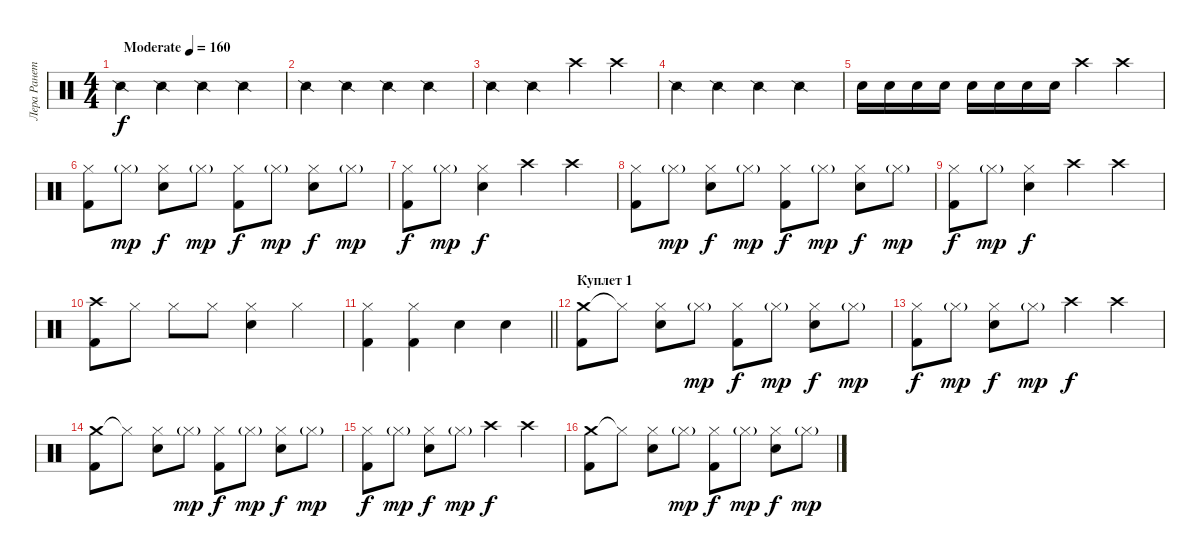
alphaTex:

\track ("Лера Ранетка" "Лера Ранет") {instrument percussion}
\staff {score}
\articulation defaults
\ts (4 4)
\tempo (160 "Moderate")
\clef neutral
\ks c "Snare (side stick) 2".4{dy f} "Snare (side stick) 2".4 "Snare (side stick) 2".4 "Snare (side stick) 2".4
|
"Snare (side stick) 2".4 "Snare (side stick) 2".4 "Snare (side stick) 2".4 "Snare (side stick) 2".4 |
"Snare (side stick) 2".4 "Snare (side stick) 2".4 "Crash high (hit)".4 "Crash high (hit)".4 |
"Snare (side stick) 2".4 "Snare (side stick) 2".4 "Snare (side stick) 2".4 "Snare (side stick) 2".4 |
"Snare (hit) 2".16 "Snare (hit) 2".16 "Snare (hit) 2".16 "Snare (hit) 2".16 "Snare (hit) 2".16 "Snare (hit) 2".16 "Snare (hit) 2".16 "Snare (hit) 2".16 "Crash high (hit)".4 "Crash high (hit)".4 |
("Hi-Hat (closed)" "Kick (hit) 2").8 "Hi-Hat (closed)"{g}.8{dy mp} ("Hi-Hat (closed)" "Snare (hit) 2").8{dy f} "Hi-Hat (closed)"{g}.8{dy mp} ("Hi-Hat (closed)" "Kick (hit) 2").8{dy f} "Hi-Hat (closed)"{g}.8{dy mp} ("Hi-Hat (closed)" "Snare (hit) 2").8{dy f} "Hi-Hat (closed)"{g}.8{dy mp} |
("Hi-Hat (closed)" "Kick (hit) 2").8{dy f} "Hi-Hat (closed)"{g}.8{dy mp} ("Hi-Hat (closed)" "Snare (hit) 2").4{dy f} "Crash high (hit)".4 "Crash high (hit)".4 |
("Hi-Hat (closed)" "Kick (hit) 2").8 "Hi-Hat (closed)"{g}.8{dy mp} ("Hi-Hat (closed)" "Snare (hit) 2").8{dy f} "Hi-Hat (closed)"{g}.8{dy mp} ("Hi-Hat (closed)" "Kick (hit) 2").8{dy f} "Hi-Hat (closed)"{g}.8{dy mp} ("Hi-Hat (closed)" "Snare (hit) 2").8{dy f} "Hi-Hat (closed)"{g}.8{dy mp} |
("Hi-Hat (closed)" "Kick (hit) 2").8{dy f} "Hi-Hat (closed)"{g}.8{dy mp} ("Hi-Hat (closed)" "Snare (hit) 2").4{dy f} "Crash high (hit)".4 "Crash high (hit)".4 |
("Crash high (hit)" "Kick (hit) 2").8 "Hi-Hat (closed)".8 "Hi-Hat (closed)".8 "Hi-Hat (closed)".8 ("Hi-Hat (closed)" "Snare (hit) 2").4 "Hi-Hat (closed)".4 |
\barLineRight lightlight
("Hi-Hat (closed)" "Kick (hit) 2").4 ("Hi-Hat (closed)" "Kick (hit) 2").4 "Snare (hit) 2".4 "Snare (hit) 2".4 |
\section ("" "Куплет 1")
("Crash medium (hit)" "Kick (hit) 2").8 "Hi-Hat (closed)"{t}.8 ("Hi-Hat (closed)" "Snare (hit) 2").8 "Hi-Hat (closed)"{g}.8{dy mp} ("Hi-Hat (closed)" "Kick (hit) 2").8{dy f} "Hi-Hat (closed)"{g}.8{dy mp} ("Hi-Hat (closed)" "Snare (hit) 2").8{dy f} "Hi-Hat (closed)"{g}.8{dy mp} |
("Hi-Hat (closed)" "Kick (hit) 2").8{dy f} "Hi-Hat (closed)"{g}.8{dy mp} ("Hi-Hat (closed)" "Snare (hit) 2").8{dy f} "Hi-Hat (closed)"{g}.8{dy mp} "Crash high (hit)".4{dy f} "Crash high (hit)".4 |
("Crash medium (hit)" "Kick (hit) 2").8 "Hi-Hat (closed)"{t}.8 ("Hi-Hat (closed)" "Snare (hit) 2").8 "Hi-Hat (closed)"{g}.8{dy mp} ("Hi-Hat (closed)" "Kick (hit) 2").8{dy f} "Hi-Hat (closed)"{g}.8{dy mp} ("Hi-Hat (closed)" "Snare (hit) 2").8{dy f} "Hi-Hat (closed)"{g}.8{dy mp} |
("Hi-Hat (closed)" "Kick (hit) 2").8{dy f} "Hi-Hat (closed)"{g}.8{dy mp} ("Hi-Hat (closed)" "Snare (hit) 2").8{dy f} "Hi-Hat (closed)"{g}.8{dy mp} "Crash high (hit)".4{dy f} "Crash high (hit)".4 |
("Crash medium (hit)" "Kick (hit) 2").8 "Hi-Hat (closed)"{t}.8 ("Hi-Hat (closed)" "Snare (hit) 2").8 "Hi-Hat (closed)"{g}.8{dy mp} ("Hi-Hat (closed)" "Kick (hit) 2").8{dy f} "Hi-Hat (closed)"{g}.8{dy mp} ("Hi-Hat (closed)" "Snare (hit) 2").8{dy f} "Hi-Hat (closed)"{g}.8{dy mp}
